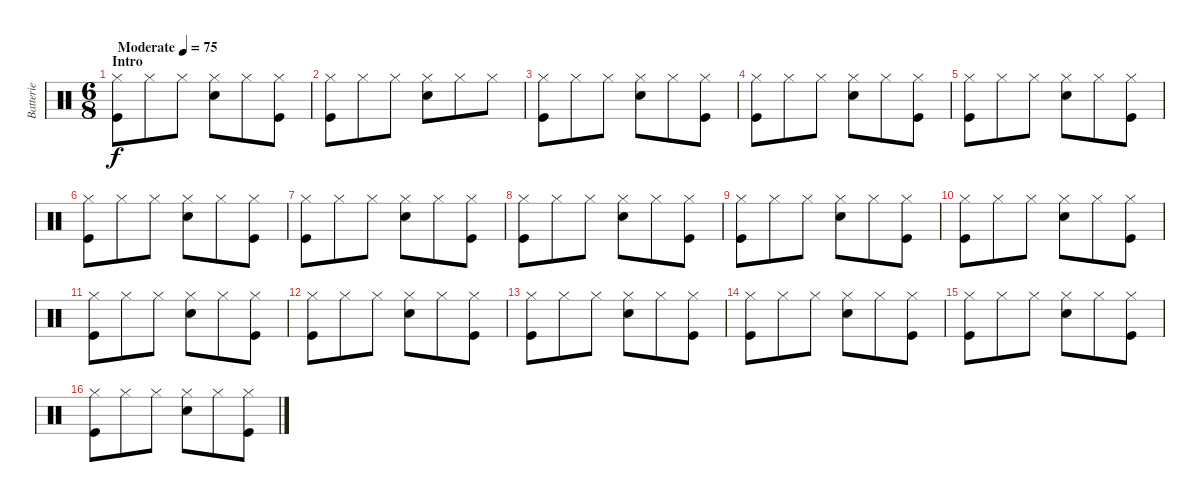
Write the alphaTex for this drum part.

\track ("Batterie" "Batterie") {instrument percussion}
\staff {score}
\articulation defaults
\ts (6 8)
\section ("" "Intro")
\tempo (75 "Moderate")
\clef neutral
\ks c
("Kick (hit)" "Hi-Hat (closed)").8{dy f} "Hi-Hat (closed)".8 "Hi-Hat (closed)".8 ("Snare (hit) 2" "Hi-Hat (closed)").8 "Hi-Hat (closed)".8 ("Kick (hit)" "Hi-Hat (closed)").8 |
("Hi-Hat (closed)" "Kick (hit)").8 "Hi-Hat (closed)".8 "Hi-Hat (closed)".8 ("Snare (hit) 2" "Hi-Hat (closed)").8 "Hi-Hat (closed)".8 "Hi-Hat (closed)".8 |
("Kick (hit)" "Hi-Hat (closed)").8 "Hi-Hat (closed)".8 "Hi-Hat (closed)".8 ("Snare (hit) 2" "Hi-Hat (closed)").8 "Hi-Hat (closed)".8 ("Kick (hit)" "Hi-Hat (closed)").8 |
("Hi-Hat (closed)" "Kick (hit)").8 "Hi-Hat (closed)".8 "Hi-Hat (closed)".8 ("Snare (hit) 2" "Hi-Hat (closed)").8 "Hi-Hat (closed)".8 ("Kick (hit)" "Hi-Hat (closed)").8 |
("Hi-Hat (closed)" "Kick (hit)").8 "Hi-Hat (closed)".8 "Hi-Hat (closed)".8 ("Snare (hit) 2" "Hi-Hat (closed)").8 "Hi-Hat (closed)".8 ("Kick (hit)" "Hi-Hat (closed)").8 |
("Hi-Hat (closed)" "Kick (hit)").8 "Hi-Hat (closed)".8 "Hi-Hat (closed)".8 ("Snare (hit) 2" "Hi-Hat (closed)").8 "Hi-Hat (closed)".8 ("Kick (hit)" "Hi-Hat (closed)").8 |
("Hi-Hat (closed)" "Kick (hit)").8 "Hi-Hat (closed)".8 "Hi-Hat (closed)".8 ("Snare (hit) 2" "Hi-Hat (closed)").8 "Hi-Hat (closed)".8 ("Kick (hit)" "Hi-Hat (closed)").8 |
("Hi-Hat (closed)" "Kick (hit)").8 "Hi-Hat (closed)".8 "Hi-Hat (closed)".8 ("Snare (hit) 2" "Hi-Hat (closed)").8 "Hi-Hat (closed)".8 ("Kick (hit)" "Hi-Hat (closed)").8 |
("Hi-Hat (closed)" "Kick (hit)").8 "Hi-Hat (closed)".8 "Hi-Hat (closed)".8 ("Snare (hit) 2" "Hi-Hat (closed)").8 "Hi-Hat (closed)".8 ("Kick (hit)" "Hi-Hat (closed)").8 |
("Hi-Hat (closed)" "Kick (hit)").8 "Hi-Hat (closed)".8 "Hi-Hat (closed)".8 ("Snare (hit) 2" "Hi-Hat (closed)").8 "Hi-Hat (closed)".8 ("Kick (hit)" "Hi-Hat (closed)").8 |
("Hi-Hat (closed)" "Kick (hit)").8 "Hi-Hat (closed)".8 "Hi-Hat (closed)".8 ("Snare (hit) 2" "Hi-Hat (closed)").8 "Hi-Hat (closed)".8 ("Kick (hit)" "Hi-Hat (closed)").8 |
("Hi-Hat (closed)" "Kick (hit)").8 "Hi-Hat (closed)".8 "Hi-Hat (closed)".8 ("Snare (hit) 2" "Hi-Hat (closed)").8 "Hi-Hat (closed)".8 ("Kick (hit)" "Hi-Hat (closed)").8 |
("Hi-Hat (closed)" "Kick (hit)").8 "Hi-Hat (closed)".8 "Hi-Hat (closed)".8 ("Snare (hit) 2" "Hi-Hat (closed)").8 "Hi-Hat (closed)".8 ("Kick (hit)" "Hi-Hat (closed)").8 |
("Hi-Hat (closed)" "Kick (hit)").8 "Hi-Hat (closed)".8 "Hi-Hat (closed)".8 ("Snare (hit) 2" "Hi-Hat (closed)").8 "Hi-Hat (closed)".8 ("Kick (hit)" "Hi-Hat (closed)").8 |
("Hi-Hat (closed)" "Kick (hit)").8 "Hi-Hat (closed)".8 "Hi-Hat (closed)".8 ("Snare (hit) 2" "Hi-Hat (closed)").8 "Hi-Hat (closed)".8 ("Kick (hit)" "Hi-Hat (closed)").8 |
("Hi-Hat (closed)" "Kick (hit)").8 "Hi-Hat (closed)".8 "Hi-Hat (closed)".8 ("Snare (hit) 2" "Hi-Hat (closed)").8 "Hi-Hat (closed)".8 ("Kick (hit)" "Hi-Hat (closed)").8
